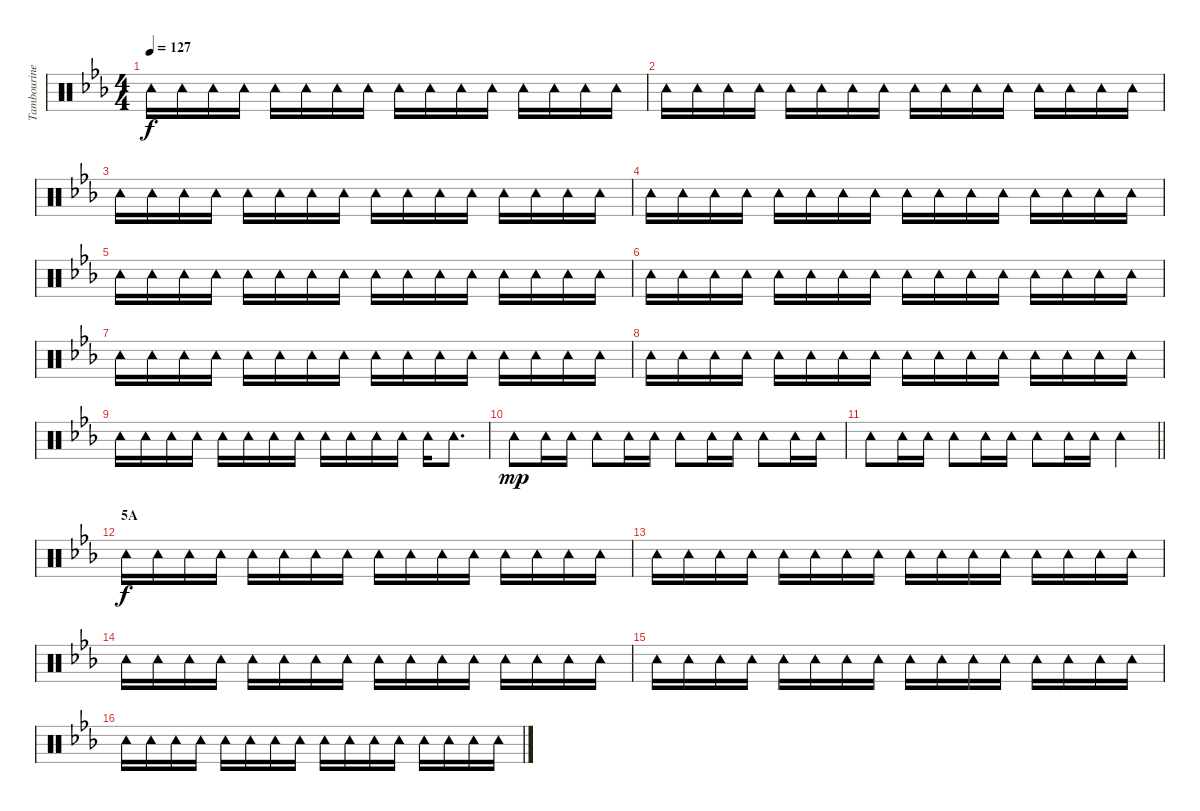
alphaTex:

\track ("Tambourine" "Tambourine") {instrument percussion}
\staff {score}
\articulation defaults
\ts (4 4)
\tempo 127
\clef neutral
\ks eb "Tambourine (hit)".16{dy f} "Tambourine (hit)".16 "Tambourine (hit)".16 "Tambourine (hit)".16 "Tambourine (hit)".16 "Tambourine (hit)".16 "Tambourine (hit)".16 "Tambourine (hit)".16 "Tambourine (hit)".16 "Tambourine (hit)".16 "Tambourine (hit)".16 "Tambourine (hit)".16 "Tambourine (hit)".16 "Tambourine (hit)".16 "Tambourine (hit)".16 "Tambourine (hit)".16
|
"Tambourine (hit)".16 "Tambourine (hit)".16 "Tambourine (hit)".16 "Tambourine (hit)".16 "Tambourine (hit)".16 "Tambourine (hit)".16 "Tambourine (hit)".16 "Tambourine (hit)".16 "Tambourine (hit)".16 "Tambourine (hit)".16 "Tambourine (hit)".16 "Tambourine (hit)".16 "Tambourine (hit)".16 "Tambourine (hit)".16 "Tambourine (hit)".16 "Tambourine (hit)".16 |
"Tambourine (hit)".16 "Tambourine (hit)".16 "Tambourine (hit)".16 "Tambourine (hit)".16 "Tambourine (hit)".16 "Tambourine (hit)".16 "Tambourine (hit)".16 "Tambourine (hit)".16 "Tambourine (hit)".16 "Tambourine (hit)".16 "Tambourine (hit)".16 "Tambourine (hit)".16 "Tambourine (hit)".16 "Tambourine (hit)".16 "Tambourine (hit)".16 "Tambourine (hit)".16 |
"Tambourine (hit)".16 "Tambourine (hit)".16 "Tambourine (hit)".16 "Tambourine (hit)".16 "Tambourine (hit)".16 "Tambourine (hit)".16 "Tambourine (hit)".16 "Tambourine (hit)".16 "Tambourine (hit)".16 "Tambourine (hit)".16 "Tambourine (hit)".16 "Tambourine (hit)".16 "Tambourine (hit)".16 "Tambourine (hit)".16 "Tambourine (hit)".16 "Tambourine (hit)".16 |
"Tambourine (hit)".16 "Tambourine (hit)".16 "Tambourine (hit)".16 "Tambourine (hit)".16 "Tambourine (hit)".16 "Tambourine (hit)".16 "Tambourine (hit)".16 "Tambourine (hit)".16 "Tambourine (hit)".16 "Tambourine (hit)".16 "Tambourine (hit)".16 "Tambourine (hit)".16 "Tambourine (hit)".16 "Tambourine (hit)".16 "Tambourine (hit)".16 "Tambourine (hit)".16 |
"Tambourine (hit)".16 "Tambourine (hit)".16 "Tambourine (hit)".16 "Tambourine (hit)".16 "Tambourine (hit)".16 "Tambourine (hit)".16 "Tambourine (hit)".16 "Tambourine (hit)".16 "Tambourine (hit)".16 "Tambourine (hit)".16 "Tambourine (hit)".16 "Tambourine (hit)".16 "Tambourine (hit)".16 "Tambourine (hit)".16 "Tambourine (hit)".16 "Tambourine (hit)".16 |
"Tambourine (hit)".16 "Tambourine (hit)".16 "Tambourine (hit)".16 "Tambourine (hit)".16 "Tambourine (hit)".16 "Tambourine (hit)".16 "Tambourine (hit)".16 "Tambourine (hit)".16 "Tambourine (hit)".16 "Tambourine (hit)".16 "Tambourine (hit)".16 "Tambourine (hit)".16 "Tambourine (hit)".16 "Tambourine (hit)".16 "Tambourine (hit)".16 "Tambourine (hit)".16 |
"Tambourine (hit)".16 "Tambourine (hit)".16 "Tambourine (hit)".16 "Tambourine (hit)".16 "Tambourine (hit)".16 "Tambourine (hit)".16 "Tambourine (hit)".16 "Tambourine (hit)".16 "Tambourine (hit)".16 "Tambourine (hit)".16 "Tambourine (hit)".16 "Tambourine (hit)".16 "Tambourine (hit)".16 "Tambourine (hit)".16 "Tambourine (hit)".16 "Tambourine (hit)".16 |
"Tambourine (hit)".16 "Tambourine (hit)".16 "Tambourine (hit)".16 "Tambourine (hit)".16 "Tambourine (hit)".16 "Tambourine (hit)".16 "Tambourine (hit)".16 "Tambourine (hit)".16 "Tambourine (hit)".16 "Tambourine (hit)".16 "Tambourine (hit)".16 "Tambourine (hit)".16 "Tambourine (hit)".16 "Tambourine (hit)".8{d} |
"Tambourine (hit)".8{dy mp} "Tambourine (hit)".16 "Tambourine (hit)".16 "Tambourine (hit)".8 "Tambourine (hit)".16 "Tambourine (hit)".16 "Tambourine (hit)".8 "Tambourine (hit)".16 "Tambourine (hit)".16 "Tambourine (hit)".8 "Tambourine (hit)".16 "Tambourine (hit)".16 |
\barLineRight lightlight "Tambourine (hit)".8 "Tambourine (hit)".16 "Tambourine (hit)".16 "Tambourine (hit)".8 "Tambourine (hit)".16 "Tambourine (hit)".16 "Tambourine (hit)".8 "Tambourine (hit)".16 "Tambourine (hit)".16 "Tambourine (hit)".4
|
\section ("" "5A")
"Tambourine (hit)".16{dy f} "Tambourine (hit)".16 "Tambourine (hit)".16 "Tambourine (hit)".16 "Tambourine (hit)".16 "Tambourine (hit)".16 "Tambourine (hit)".16 "Tambourine (hit)".16 "Tambourine (hit)".16 "Tambourine (hit)".16 "Tambourine (hit)".16 "Tambourine (hit)".16 "Tambourine (hit)".16 "Tambourine (hit)".16 "Tambourine (hit)".16 "Tambourine (hit)".16 |
"Tambourine (hit)".16 "Tambourine (hit)".16 "Tambourine (hit)".16 "Tambourine (hit)".16 "Tambourine (hit)".16 "Tambourine (hit)".16 "Tambourine (hit)".16 "Tambourine (hit)".16 "Tambourine (hit)".16 "Tambourine (hit)".16 "Tambourine (hit)".16 "Tambourine (hit)".16 "Tambourine (hit)".16 "Tambourine (hit)".16 "Tambourine (hit)".16 "Tambourine (hit)".16 |
"Tambourine (hit)".16 "Tambourine (hit)".16 "Tambourine (hit)".16 "Tambourine (hit)".16 "Tambourine (hit)".16 "Tambourine (hit)".16 "Tambourine (hit)".16 "Tambourine (hit)".16 "Tambourine (hit)".16 "Tambourine (hit)".16 "Tambourine (hit)".16 "Tambourine (hit)".16 "Tambourine (hit)".16 "Tambourine (hit)".16 "Tambourine (hit)".16 "Tambourine (hit)".16 |
"Tambourine (hit)".16 "Tambourine (hit)".16 "Tambourine (hit)".16 "Tambourine (hit)".16 "Tambourine (hit)".16 "Tambourine (hit)".16 "Tambourine (hit)".16 "Tambourine (hit)".16 "Tambourine (hit)".16 "Tambourine (hit)".16 "Tambourine (hit)".16 "Tambourine (hit)".16 "Tambourine (hit)".16 "Tambourine (hit)".16 "Tambourine (hit)".16 "Tambourine (hit)".16 |
"Tambourine (hit)".16 "Tambourine (hit)".16 "Tambourine (hit)".16 "Tambourine (hit)".16 "Tambourine (hit)".16 "Tambourine (hit)".16 "Tambourine (hit)".16 "Tambourine (hit)".16 "Tambourine (hit)".16 "Tambourine (hit)".16 "Tambourine (hit)".16 "Tambourine (hit)".16 "Tambourine (hit)".16 "Tambourine (hit)".16 "Tambourine (hit)".16 "Tambourine (hit)".16
